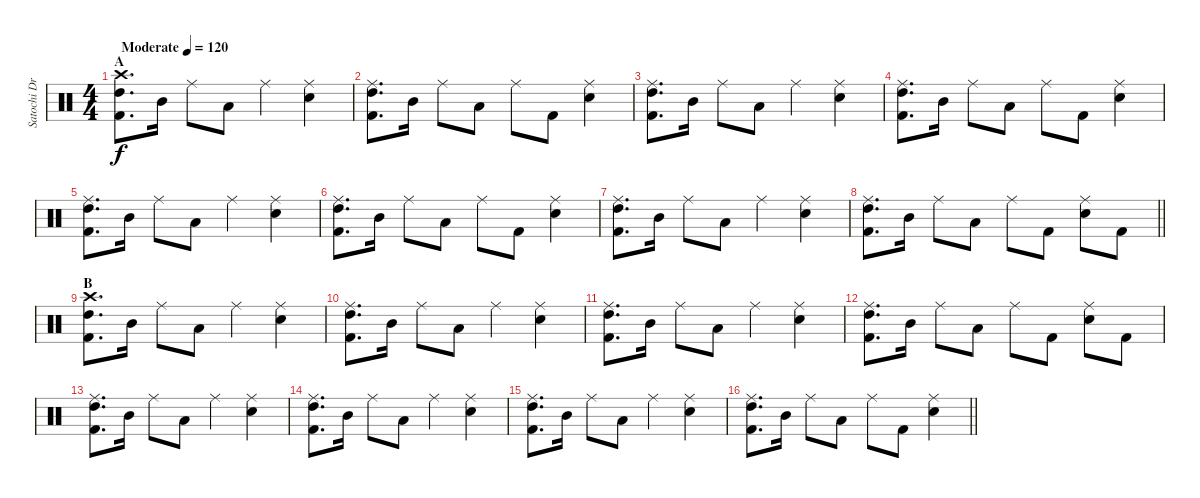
\track ("Satochi Drums" "Satochi Dr") {instrument percussion}
\staff {score}
\articulation defaults
\ts (4 4)
\section ("" "A")
\tempo (120 "Moderate")
\clef neutral
\ks c
("Crash high (hit)" "High Tom (hit)" "Kick (hit) 2").8{d dy f} "Mid Tom (hit)".16 "Ride (middle)".8 "Low Floor Tom (hit)".8 "Ride (middle)".4 ("Ride (middle)" "Snare (hit) 2").4 |
("Ride (middle)" "High Tom (hit)" "Kick (hit) 2").8{d} "Mid Tom (hit)".16 "Ride (middle)".8 "Low Floor Tom (hit)".8 "Ride (middle)".8 "Kick (hit) 2".8 ("Ride (middle)" "Snare (hit) 2").4 |
("Ride (middle)" "High Tom (hit)" "Kick (hit) 2").8{d} "Mid Tom (hit)".16 "Ride (middle)".8 "Low Floor Tom (hit)".8 "Ride (middle)".4 ("Ride (middle)" "Snare (hit) 2").4 |
("Ride (middle)" "High Tom (hit)" "Kick (hit) 2").8{d} "Mid Tom (hit)".16 "Ride (middle)".8 "Low Floor Tom (hit)".8 "Ride (middle)".8 "Kick (hit) 2".8 ("Ride (middle)" "Snare (hit) 2").4 |
("Ride (middle)" "High Tom (hit)" "Kick (hit) 2").8{d} "Mid Tom (hit)".16 "Ride (middle)".8 "Low Floor Tom (hit)".8 "Ride (middle)".4 ("Ride (middle)" "Snare (hit) 2").4 |
("Ride (middle)" "High Tom (hit)" "Kick (hit) 2").8{d} "Mid Tom (hit)".16 "Ride (middle)".8 "Low Floor Tom (hit)".8 "Ride (middle)".8 "Kick (hit) 2".8 ("Ride (middle)" "Snare (hit) 2").4 |
("Ride (middle)" "High Tom (hit)" "Kick (hit) 2").8{d} "Mid Tom (hit)".16 "Ride (middle)".8 "Low Floor Tom (hit)".8 "Ride (middle)".4 ("Ride (middle)" "Snare (hit) 2").4 |
\barLineRight lightlight
("Ride (middle)" "High Tom (hit)" "Kick (hit) 2").8{d} "Mid Tom (hit)".16 "Ride (middle)".8 "Low Floor Tom (hit)".8 "Ride (middle)".8 "Kick (hit) 2".8 ("Ride (middle)" "Snare (hit) 2").8 "Kick (hit) 2".8 |
\section ("" "B")
("Crash high (hit)" "High Tom (hit)" "Kick (hit) 2").8{d} "Mid Tom (hit)".16 "Ride (middle)".8 "Low Floor Tom (hit)".8 "Ride (middle)".4 ("Ride (middle)" "Snare (hit) 2").4 |
("Ride (middle)" "High Tom (hit)" "Kick (hit) 2").8{d} "Mid Tom (hit)".16 "Ride (middle)".8 "Low Floor Tom (hit)".8 "Ride (middle)".4 ("Ride (middle)" "Snare (hit) 2").4 |
("Ride (middle)" "High Tom (hit)" "Kick (hit) 2").8{d} "Mid Tom (hit)".16 "Ride (middle)".8 "Low Floor Tom (hit)".8 "Ride (middle)".4 ("Ride (middle)" "Snare (hit) 2").4 |
("Ride (middle)" "High Tom (hit)" "Kick (hit) 2").8{d} "Mid Tom (hit)".16 "Ride (middle)".8 "Low Floor Tom (hit)".8 "Ride (middle)".8 "Kick (hit) 2".8 ("Ride (middle)" "Snare (hit) 2").8 "Kick (hit) 2".8 |
("Ride (middle)" "High Tom (hit)" "Kick (hit) 2").8{d} "Mid Tom (hit)".16 "Ride (middle)".8 "Low Floor Tom (hit)".8 "Ride (middle)".4 ("Ride (middle)" "Snare (hit) 2").4 |
("Ride (middle)" "High Tom (hit)" "Kick (hit) 2").8{d} "Mid Tom (hit)".16 "Ride (middle)".8 "Low Floor Tom (hit)".8 "Ride (middle)".4 ("Ride (middle)" "Snare (hit) 2").4 |
("Ride (middle)" "High Tom (hit)" "Kick (hit) 2").8{d} "Mid Tom (hit)".16 "Ride (middle)".8 "Low Floor Tom (hit)".8 "Ride (middle)".4 ("Ride (middle)" "Snare (hit) 2").4 |
\barLineRight lightlight
("Ride (middle)" "High Tom (hit)" "Kick (hit) 2").8{d} "Mid Tom (hit)".16 "Ride (middle)".8 "Low Floor Tom (hit)".8 "Ride (middle)".8 "Kick (hit) 2".8 ("Ride (middle)" "Snare (hit) 2").4
